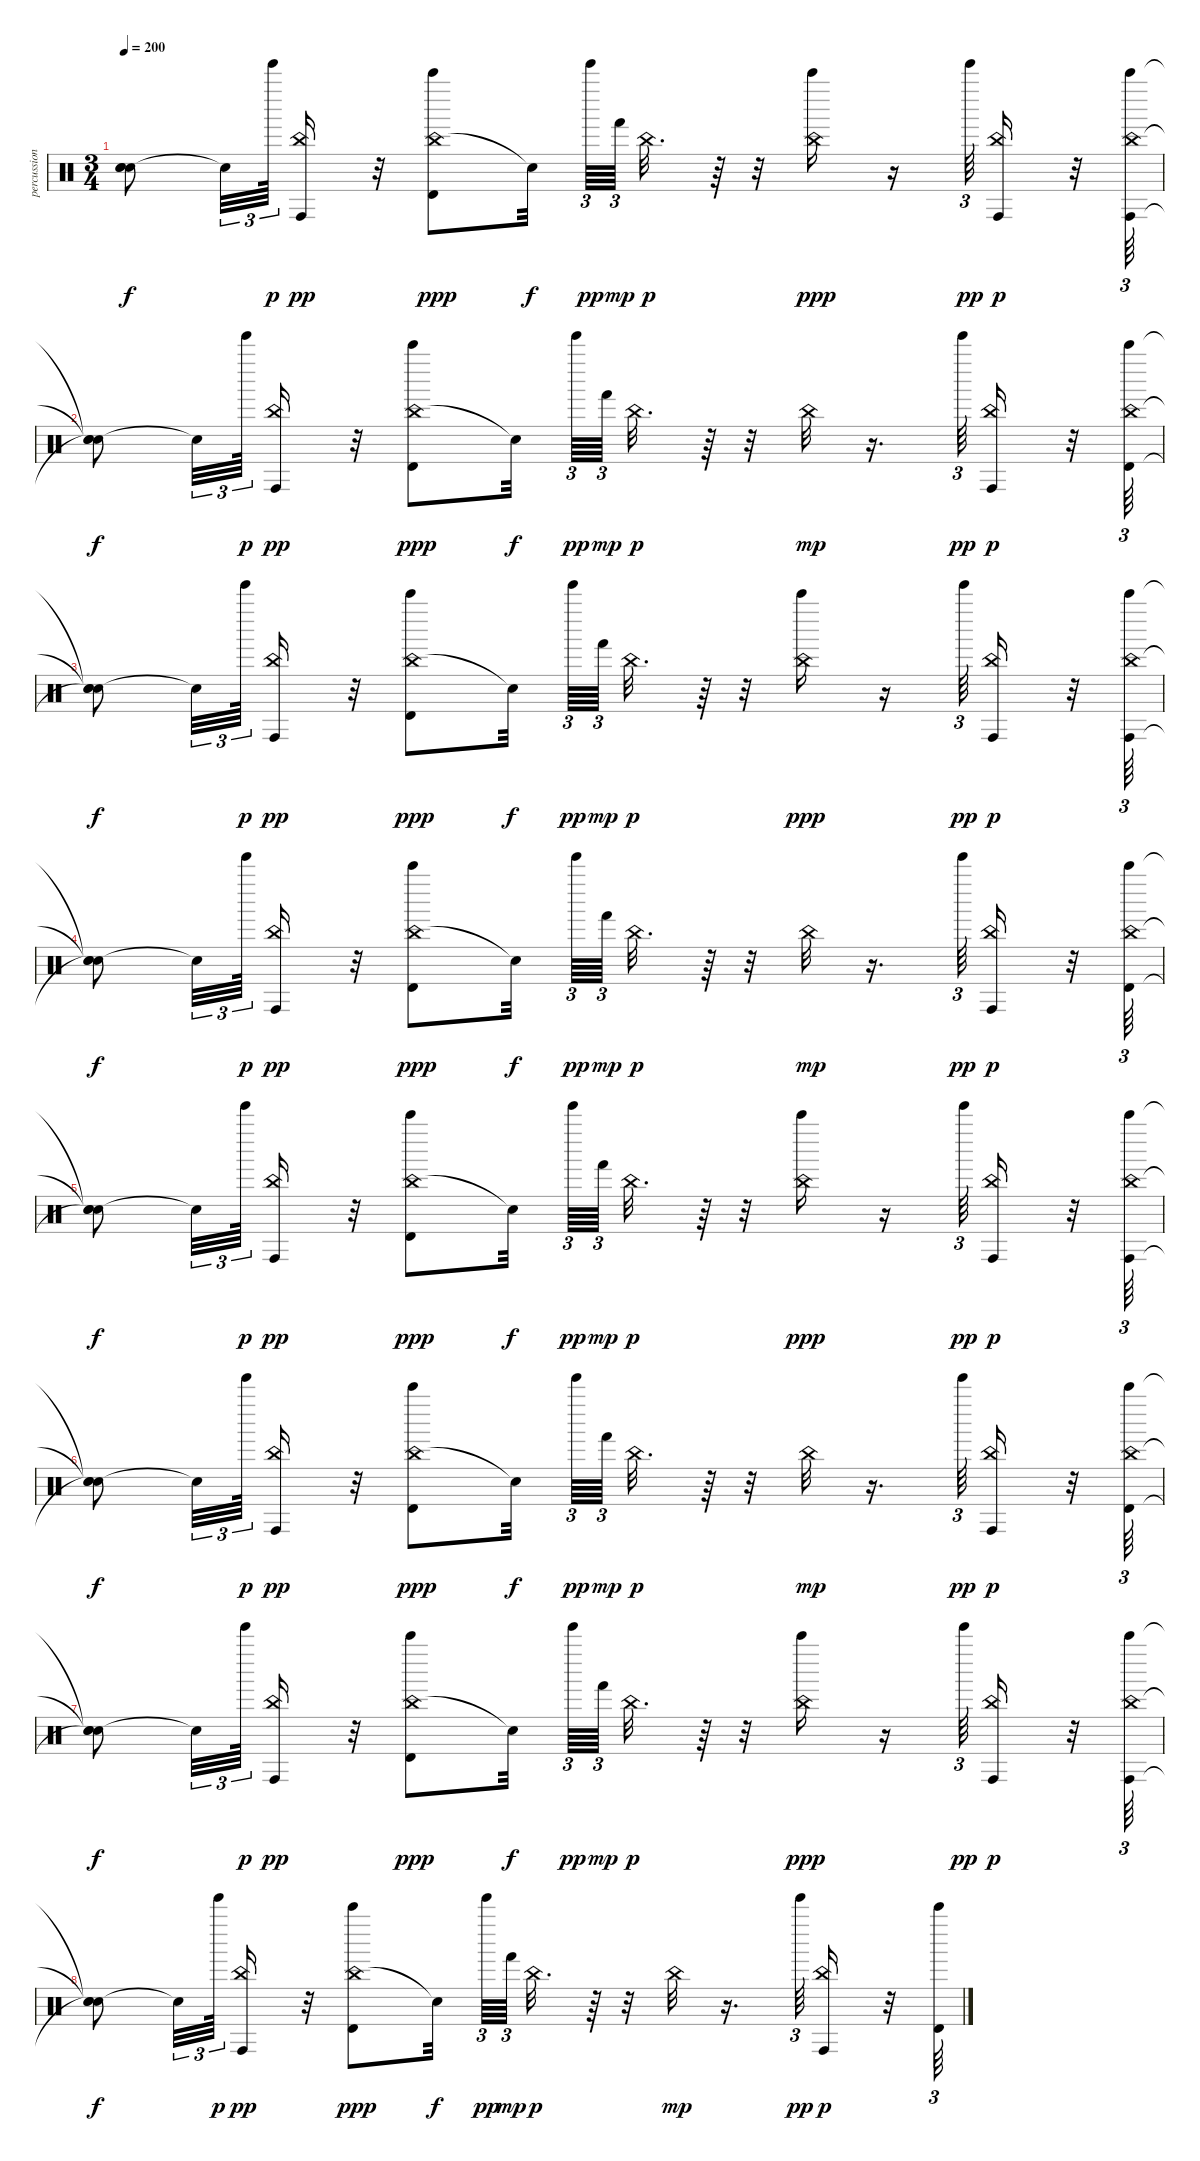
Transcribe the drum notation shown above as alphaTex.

\track ("percussion" "percussion") {instrument percussion}
\staff {score}
\articulation defaults
\ts (3 4)
\tempo 200
\clef neutral
\ks c
("Snare (hit)"{t} "Snare (hit)"{t} "Snare (hit)"{t}).8{dy f} "Snare (hit)"{t}.32{tu (3 2)} "Tinkle Bell (hit)".64{tu (3 2) dy p} ("Conga high (hit)" "China (hit)").16{dy pp} r.32 ("China (hit)" "Timbale high (hit)" "Bell Tree (hit)").8{dy ppp} "Snare (hit)"{t}.32{dy f} "Tinkle Bell (hit)".64{tu (3 2) dy pp} "Hand (hit)".64{tu (3 2) dy mp} "China (hit)".32{d dy p} r.64 r.32 ("China (hit)" "Bell Tree (hit)").16{dy ppp} r.16 "Tinkle Bell (hit)".64{tu (3 2) dy pp} ("Conga high (hit)" "China (hit)").16{dy p} r.32 ("China (hit)" "Conga high (hit)" "Bell Tree (hit)").64{tu (3 2)} |
("Snare (hit)"{t} "Snare (hit)"{t} "Snare (hit)"{t}).8{dy f} "Snare (hit)"{t}.32{tu (3 2)} "Tinkle Bell (hit)".64{tu (3 2) dy p} ("Conga high (hit)" "China (hit)").16{dy pp} r.32 ("China (hit)" "Timbale high (hit)" "Bell Tree (hit)").8{dy ppp} "Snare (hit)"{t}.32{dy f} "Tinkle Bell (hit)".64{tu (3 2) dy pp} "Hand (hit)".64{tu (3 2) dy mp} "China (hit)".32{d dy p} r.64 r.32 "China (hit)".32{dy mp} r.16{d} "Tinkle Bell (hit)".64{tu (3 2) dy pp} ("Conga high (hit)" "China (hit)").16{dy p} r.32 ("China (hit)" "Timbale high (hit)" "Bell Tree (hit)").64{tu (3 2)} |
("Snare (hit)"{t} "Snare (hit)"{t} "Snare (hit)"{t}).8{dy f} "Snare (hit)"{t}.32{tu (3 2)} "Tinkle Bell (hit)".64{tu (3 2) dy p} ("Conga high (hit)" "China (hit)").16{dy pp} r.32 ("China (hit)" "Timbale high (hit)" "Bell Tree (hit)").8{dy ppp} "Snare (hit)"{t}.32{dy f} "Tinkle Bell (hit)".64{tu (3 2) dy pp} "Hand (hit)".64{tu (3 2) dy mp} "China (hit)".32{d dy p} r.64 r.32 ("China (hit)" "Bell Tree (hit)").16{dy ppp} r.16 "Tinkle Bell (hit)".64{tu (3 2) dy pp} ("Conga high (hit)" "China (hit)").16{dy p} r.32 ("China (hit)" "Conga high (hit)" "Bell Tree (hit)").64{tu (3 2)} |
("Snare (hit)"{t} "Snare (hit)"{t} "Snare (hit)"{t}).8{dy f} "Snare (hit)"{t}.32{tu (3 2)} "Tinkle Bell (hit)".64{tu (3 2) dy p} ("Conga high (hit)" "China (hit)").16{dy pp} r.32 ("China (hit)" "Timbale high (hit)" "Bell Tree (hit)").8{dy ppp} "Snare (hit)"{t}.32{dy f} "Tinkle Bell (hit)".64{tu (3 2) dy pp} "Hand (hit)".64{tu (3 2) dy mp} "China (hit)".32{d dy p} r.64 r.32 "China (hit)".32{dy mp} r.16{d} "Tinkle Bell (hit)".64{tu (3 2) dy pp} ("Conga high (hit)" "China (hit)").16{dy p} r.32 ("China (hit)" "Timbale high (hit)" "Bell Tree (hit)").64{tu (3 2)} |
("Snare (hit)"{t} "Snare (hit)"{t} "Snare (hit)"{t}).8{dy f} "Snare (hit)"{t}.32{tu (3 2)} "Tinkle Bell (hit)".64{tu (3 2) dy p} ("Conga high (hit)" "China (hit)").16{dy pp} r.32 ("China (hit)" "Timbale high (hit)" "Bell Tree (hit)").8{dy ppp} "Snare (hit)"{t}.32{dy f} "Tinkle Bell (hit)".64{tu (3 2) dy pp} "Hand (hit)".64{tu (3 2) dy mp} "China (hit)".32{d dy p} r.64 r.32 ("China (hit)" "Bell Tree (hit)").16{dy ppp} r.16 "Tinkle Bell (hit)".64{tu (3 2) dy pp} ("Conga high (hit)" "China (hit)").16{dy p} r.32 ("China (hit)" "Conga high (hit)" "Bell Tree (hit)").64{tu (3 2)} |
("Snare (hit)"{t} "Snare (hit)"{t} "Snare (hit)"{t}).8{dy f} "Snare (hit)"{t}.32{tu (3 2)} "Tinkle Bell (hit)".64{tu (3 2) dy p} ("Conga high (hit)" "China (hit)").16{dy pp} r.32 ("China (hit)" "Timbale high (hit)" "Bell Tree (hit)").8{dy ppp} "Snare (hit)"{t}.32{dy f} "Tinkle Bell (hit)".64{tu (3 2) dy pp} "Hand (hit)".64{tu (3 2) dy mp} "China (hit)".32{d dy p} r.64 r.32 "China (hit)".32{dy mp} r.16{d} "Tinkle Bell (hit)".64{tu (3 2) dy pp} ("Conga high (hit)" "China (hit)").16{dy p} r.32 ("China (hit)" "Timbale high (hit)" "Bell Tree (hit)").64{tu (3 2)} |
("Snare (hit)"{t} "Snare (hit)"{t} "Snare (hit)"{t}).8{dy f} "Snare (hit)"{t}.32{tu (3 2)} "Tinkle Bell (hit)".64{tu (3 2) dy p} ("Conga high (hit)" "China (hit)").16{dy pp} r.32 ("China (hit)" "Timbale high (hit)" "Bell Tree (hit)").8{dy ppp} "Snare (hit)"{t}.32{dy f} "Tinkle Bell (hit)".64{tu (3 2) dy pp} "Hand (hit)".64{tu (3 2) dy mp} "China (hit)".32{d dy p} r.64 r.32 ("China (hit)" "Bell Tree (hit)").16{dy ppp} r.16 "Tinkle Bell (hit)".64{tu (3 2) dy pp} ("Conga high (hit)" "China (hit)").16{dy p} r.32 ("China (hit)" "Conga high (hit)" "Bell Tree (hit)").64{tu (3 2)} |
("Snare (hit)"{t} "Snare (hit)"{t} "Snare (hit)"{t}).8{dy f} "Snare (hit)"{t}.32{tu (3 2)} "Tinkle Bell (hit)".64{tu (3 2) dy p} ("Conga high (hit)" "China (hit)").16{dy pp} r.32 ("China (hit)" "Timbale high (hit)" "Bell Tree (hit)").8{dy ppp} "Snare (hit)"{t}.32{dy f} "Tinkle Bell (hit)".64{tu (3 2) dy pp} "Hand (hit)".64{tu (3 2) dy mp} "China (hit)".32{d dy p} r.64 r.32 "China (hit)".32{dy mp} r.16{d} "Tinkle Bell (hit)".64{tu (3 2) dy pp} ("Conga high (hit)" "China (hit)").16{dy p} r.32 ("Timbale high (hit)" "Bell Tree (hit)").64{tu (3 2)}
